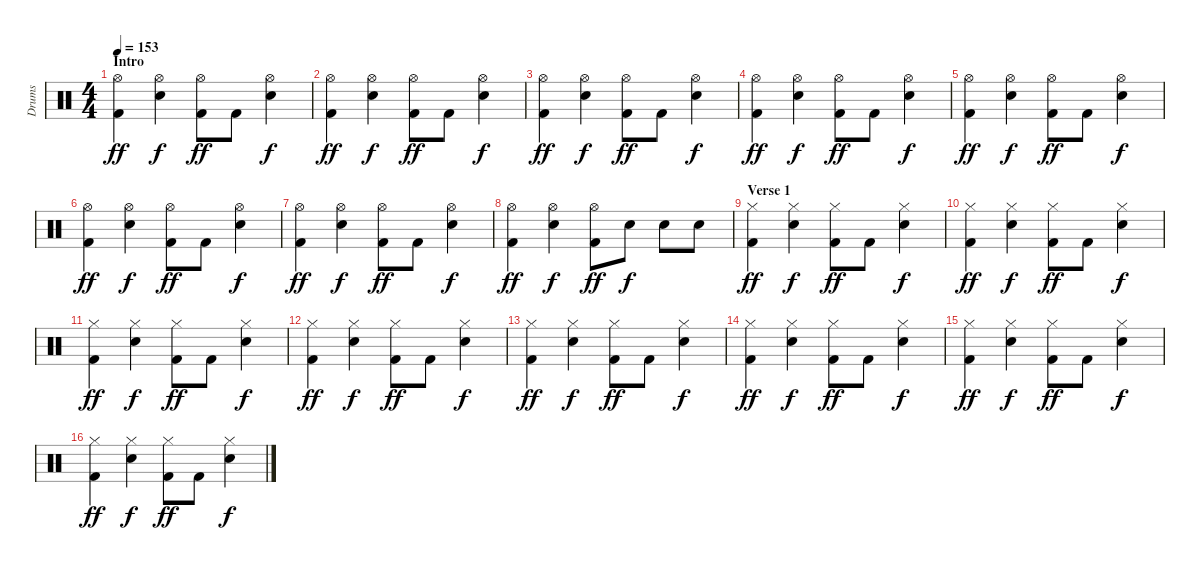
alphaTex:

\track ("Drums" "Drums") {instrument percussion}
\staff {score}
\articulation defaults
\ts (4 4)
\section ("" "Intro")
\tempo 153
\clef neutral
\ks c
("Hi-Hat (open)" "Kick (hit) 2").4{dy ff} ("Hi-Hat (open)" "Electric Snare (hit)").4{dy f} ("Hi-Hat (open)" "Kick (hit) 2").8{dy ff} "Kick (hit) 2".8 ("Hi-Hat (open)" "Electric Snare (hit)").4{dy f} |
("Hi-Hat (open)" "Kick (hit) 2").4{dy ff} ("Hi-Hat (open)" "Electric Snare (hit)").4{dy f} ("Hi-Hat (open)" "Kick (hit) 2").8{dy ff} "Kick (hit) 2".8 ("Hi-Hat (open)" "Electric Snare (hit)").4{dy f} |
("Hi-Hat (open)" "Kick (hit) 2").4{dy ff} ("Hi-Hat (open)" "Electric Snare (hit)").4{dy f} ("Hi-Hat (open)" "Kick (hit) 2").8{dy ff} "Kick (hit) 2".8 ("Hi-Hat (open)" "Electric Snare (hit)").4{dy f} |
("Hi-Hat (open)" "Kick (hit) 2").4{dy ff} ("Hi-Hat (open)" "Electric Snare (hit)").4{dy f} ("Hi-Hat (open)" "Kick (hit) 2").8{dy ff} "Kick (hit) 2".8 ("Hi-Hat (open)" "Electric Snare (hit)").4{dy f} |
("Hi-Hat (open)" "Kick (hit) 2").4{dy ff} ("Hi-Hat (open)" "Electric Snare (hit)").4{dy f} ("Hi-Hat (open)" "Kick (hit) 2").8{dy ff} "Kick (hit) 2".8 ("Hi-Hat (open)" "Electric Snare (hit)").4{dy f} |
("Hi-Hat (open)" "Kick (hit) 2").4{dy ff} ("Hi-Hat (open)" "Electric Snare (hit)").4{dy f} ("Hi-Hat (open)" "Kick (hit) 2").8{dy ff} "Kick (hit) 2".8 ("Hi-Hat (open)" "Electric Snare (hit)").4{dy f} |
("Hi-Hat (open)" "Kick (hit) 2").4{dy ff} ("Hi-Hat (open)" "Electric Snare (hit)").4{dy f} ("Hi-Hat (open)" "Kick (hit) 2").8{dy ff} "Kick (hit) 2".8 ("Hi-Hat (open)" "Electric Snare (hit)").4{dy f} |
("Hi-Hat (open)" "Kick (hit) 2").4{dy ff} ("Hi-Hat (open)" "Electric Snare (hit)").4{dy f} ("Hi-Hat (open)" "Kick (hit) 2").8{dy ff} "Electric Snare (hit)".8{dy f} "Electric Snare (hit)".8 "Electric Snare (hit)".8 |
\section ("" "Verse 1")
("Hi-Hat (closed)" "Kick (hit) 2").4{dy ff} ("Hi-Hat (closed)" "Electric Snare (hit)").4{dy f} ("Hi-Hat (closed)" "Kick (hit) 2").8{dy ff} "Kick (hit) 2".8 ("Hi-Hat (closed)" "Electric Snare (hit)").4{dy f} |
("Hi-Hat (closed)" "Kick (hit) 2").4{dy ff} ("Hi-Hat (closed)" "Electric Snare (hit)").4{dy f} ("Hi-Hat (closed)" "Kick (hit) 2").8{dy ff} "Kick (hit) 2".8 ("Hi-Hat (closed)" "Electric Snare (hit)").4{dy f} |
("Hi-Hat (closed)" "Kick (hit) 2").4{dy ff} ("Hi-Hat (closed)" "Electric Snare (hit)").4{dy f} ("Hi-Hat (closed)" "Kick (hit) 2").8{dy ff} "Kick (hit) 2".8 ("Hi-Hat (closed)" "Electric Snare (hit)").4{dy f} |
("Hi-Hat (closed)" "Kick (hit) 2").4{dy ff} ("Hi-Hat (closed)" "Electric Snare (hit)").4{dy f} ("Hi-Hat (closed)" "Kick (hit) 2").8{dy ff} "Kick (hit) 2".8 ("Hi-Hat (closed)" "Electric Snare (hit)").4{dy f} |
("Hi-Hat (closed)" "Kick (hit) 2").4{dy ff} ("Hi-Hat (closed)" "Electric Snare (hit)").4{dy f} ("Hi-Hat (closed)" "Kick (hit) 2").8{dy ff} "Kick (hit) 2".8 ("Hi-Hat (closed)" "Electric Snare (hit)").4{dy f} |
("Hi-Hat (closed)" "Kick (hit) 2").4{dy ff} ("Hi-Hat (closed)" "Electric Snare (hit)").4{dy f} ("Hi-Hat (closed)" "Kick (hit) 2").8{dy ff} "Kick (hit) 2".8 ("Hi-Hat (closed)" "Electric Snare (hit)").4{dy f} |
("Hi-Hat (closed)" "Kick (hit) 2").4{dy ff} ("Hi-Hat (closed)" "Electric Snare (hit)").4{dy f} ("Hi-Hat (closed)" "Kick (hit) 2").8{dy ff} "Kick (hit) 2".8 ("Hi-Hat (closed)" "Electric Snare (hit)").4{dy f} |
("Hi-Hat (closed)" "Kick (hit) 2").4{dy ff} ("Hi-Hat (closed)" "Electric Snare (hit)").4{dy f} ("Hi-Hat (closed)" "Kick (hit) 2").8{dy ff} "Kick (hit) 2".8 ("Hi-Hat (closed)" "Electric Snare (hit)").4{dy f}
